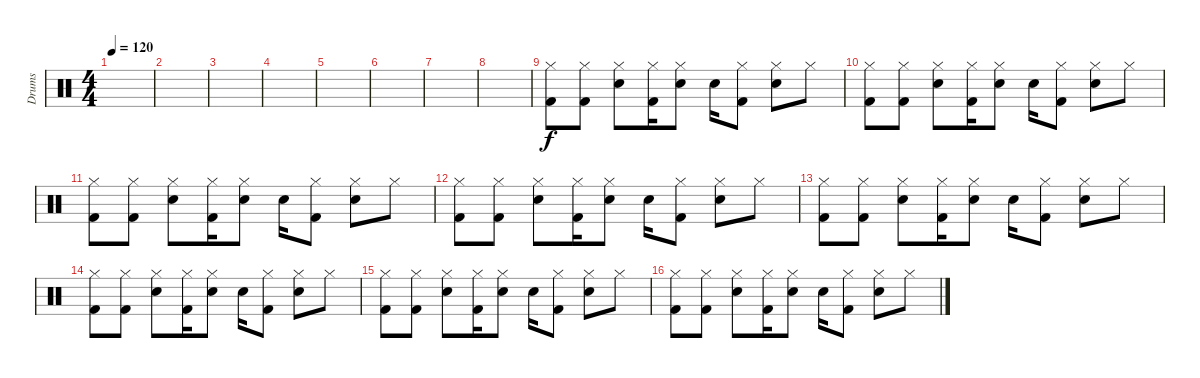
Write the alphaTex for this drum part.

\track ("Drums" "Drums") {instrument percussion}
\staff {score}
\articulation defaults
\ts (4 4)
\tempo 120
\clef neutral
\ks c
|
|
|
|
|
|
|
|
("Hi-Hat (closed)" "Kick (hit) 2").8 ("Hi-Hat (closed)" "Kick (hit) 2").8 ("Hi-Hat (closed)" "Electric Snare (hit)").8 ("Hi-Hat (closed)" "Kick (hit) 2").16 ("Hi-Hat (closed)" "Electric Snare (hit)").8 "Electric Snare (hit)".16 ("Hi-Hat (closed)" "Kick (hit) 2").8 ("Hi-Hat (closed)" "Electric Snare (hit)").8 "Hi-Hat (closed)".8 |
("Hi-Hat (closed)" "Kick (hit) 2").8 ("Hi-Hat (closed)" "Kick (hit) 2").8 ("Hi-Hat (closed)" "Electric Snare (hit)").8 ("Hi-Hat (closed)" "Kick (hit) 2").16 ("Hi-Hat (closed)" "Electric Snare (hit)").8 "Electric Snare (hit)".16 ("Hi-Hat (closed)" "Kick (hit) 2").8 ("Hi-Hat (closed)" "Electric Snare (hit)").8 "Hi-Hat (closed)".8 |
("Hi-Hat (closed)" "Kick (hit) 2").8 ("Hi-Hat (closed)" "Kick (hit) 2").8 ("Hi-Hat (closed)" "Electric Snare (hit)").8 ("Hi-Hat (closed)" "Kick (hit) 2").16 ("Hi-Hat (closed)" "Electric Snare (hit)").8 "Electric Snare (hit)".16 ("Hi-Hat (closed)" "Kick (hit) 2").8 ("Hi-Hat (closed)" "Electric Snare (hit)").8 "Hi-Hat (closed)".8 |
("Hi-Hat (closed)" "Kick (hit) 2").8 ("Hi-Hat (closed)" "Kick (hit) 2").8 ("Hi-Hat (closed)" "Electric Snare (hit)").8 ("Hi-Hat (closed)" "Kick (hit) 2").16 ("Hi-Hat (closed)" "Electric Snare (hit)").8 "Electric Snare (hit)".16 ("Hi-Hat (closed)" "Kick (hit) 2").8 ("Hi-Hat (closed)" "Electric Snare (hit)").8 "Hi-Hat (closed)".8 |
("Hi-Hat (closed)" "Kick (hit) 2").8 ("Hi-Hat (closed)" "Kick (hit) 2").8 ("Hi-Hat (closed)" "Electric Snare (hit)").8 ("Hi-Hat (closed)" "Kick (hit) 2").16 ("Hi-Hat (closed)" "Electric Snare (hit)").8 "Electric Snare (hit)".16 ("Hi-Hat (closed)" "Kick (hit) 2").8 ("Hi-Hat (closed)" "Electric Snare (hit)").8 "Hi-Hat (closed)".8 |
("Hi-Hat (closed)" "Kick (hit) 2").8 ("Hi-Hat (closed)" "Kick (hit) 2").8 ("Hi-Hat (closed)" "Electric Snare (hit)").8 ("Hi-Hat (closed)" "Kick (hit) 2").16 ("Hi-Hat (closed)" "Electric Snare (hit)").8 "Electric Snare (hit)".16 ("Hi-Hat (closed)" "Kick (hit) 2").8 ("Hi-Hat (closed)" "Electric Snare (hit)").8 "Hi-Hat (closed)".8 |
("Hi-Hat (closed)" "Kick (hit) 2").8 ("Hi-Hat (closed)" "Kick (hit) 2").8 ("Hi-Hat (closed)" "Electric Snare (hit)").8 ("Hi-Hat (closed)" "Kick (hit) 2").16 ("Hi-Hat (closed)" "Electric Snare (hit)").8 "Electric Snare (hit)".16 ("Hi-Hat (closed)" "Kick (hit) 2").8 ("Hi-Hat (closed)" "Electric Snare (hit)").8 "Hi-Hat (closed)".8 |
("Hi-Hat (closed)" "Kick (hit) 2").8 ("Hi-Hat (closed)" "Kick (hit) 2").8 ("Hi-Hat (closed)" "Electric Snare (hit)").8 ("Hi-Hat (closed)" "Kick (hit) 2").16 ("Hi-Hat (closed)" "Electric Snare (hit)").8 "Electric Snare (hit)".16 ("Hi-Hat (closed)" "Kick (hit) 2").8 ("Hi-Hat (closed)" "Electric Snare (hit)").8 "Hi-Hat (closed)".8
